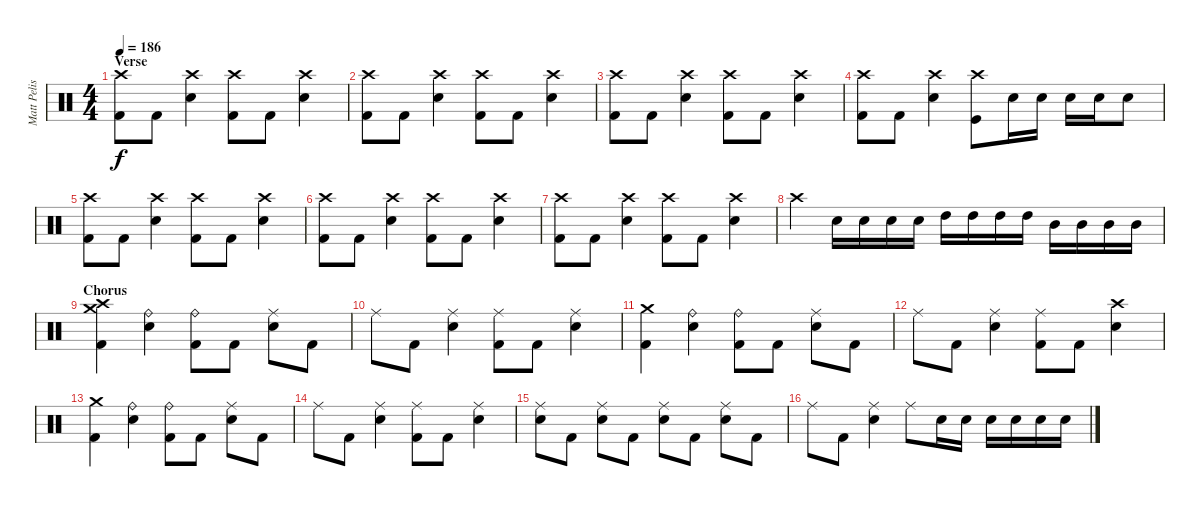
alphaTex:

\track ("Matt Pelissier" "Matt Pelis") {instrument percussion}
\staff {score}
\articulation defaults
\ts (4 4)
\section ("" "Verse")
\tempo 186
\clef neutral
\ks c
("Crash high (hit)" "Kick (hit) 2").8{dy f} "Kick (hit) 2".8 ("Snare (hit) 2" "Crash high (hit)").4 ("Crash high (hit)" "Kick (hit) 2").8 "Kick (hit) 2".8 ("Snare (hit) 2" "Crash high (hit)").4 |
("Crash high (hit)" "Kick (hit) 2").8 "Kick (hit) 2".8 ("Snare (hit) 2" "Crash high (hit)").4 ("Crash high (hit)" "Kick (hit) 2").8 "Kick (hit) 2".8 ("Snare (hit) 2" "Crash high (hit)").4 |
("Crash high (hit)" "Kick (hit) 2").8 "Kick (hit) 2".8 ("Snare (hit) 2" "Crash high (hit)").4 ("Crash high (hit)" "Kick (hit) 2").8 "Kick (hit) 2".8 ("Snare (hit) 2" "Crash high (hit)").4 |
("Crash high (hit)" "Kick (hit) 2").8 "Kick (hit) 2".8 ("Snare (hit) 2" "Crash high (hit)").4 ("Crash high (hit)" "Kick (hit)").8 "Snare (hit) 2".16 "Snare (hit) 2".16 "Snare (hit) 2".16 "Snare (hit) 2".16 "Snare (hit) 2".8 |
("Crash high (hit)" "Kick (hit) 2").8 "Kick (hit) 2".8 ("Snare (hit) 2" "Crash high (hit)").4 ("Crash high (hit)" "Kick (hit) 2").8 "Kick (hit) 2".8 ("Snare (hit) 2" "Crash high (hit)").4 |
("Crash high (hit)" "Kick (hit) 2").8 "Kick (hit) 2".8 ("Snare (hit) 2" "Crash high (hit)").4 ("Crash high (hit)" "Kick (hit) 2").8 "Kick (hit) 2".8 ("Snare (hit) 2" "Crash high (hit)").4 |
("Crash high (hit)" "Kick (hit) 2").8 "Kick (hit) 2".8 ("Snare (hit) 2" "Crash high (hit)").4 ("Crash high (hit)" "Kick (hit) 2").8 "Kick (hit) 2".8 ("Snare (hit) 2" "Crash high (hit)").4 |
"Crash high (hit)".4 "Snare (hit) 2".16 "Snare (hit) 2".16 "Snare (hit) 2".16 "Snare (hit) 2".16 "High Tom (hit)".16 "High Tom (hit)".16 "High Tom (hit)".16 "High Tom (hit)".16 "Mid Tom (hit)".16 "Mid Tom (hit)".16 "Mid Tom (hit)".16 "Mid Tom (hit)".16 |
\section ("" "Chorus")
("Crash high (hit)" "Crash medium (hit)" "Kick (hit) 2").4 ("Snare (hit) 2" "Ride (bell)").4 ("Ride (bell)" "Kick (hit) 2").8 "Kick (hit) 2".8 ("Snare (hit) 2" "Ride (middle)").8 "Kick (hit) 2".8 |
"Ride (middle)".8 "Kick (hit) 2".8 ("Snare (hit) 2" "Ride (middle)").4 ("Ride (middle)" "Kick (hit) 2").8 "Kick (hit) 2".8 ("Snare (hit) 2" "Ride (middle)").4 |
("Crash medium (hit)" "Kick (hit) 2").4 ("Snare (hit) 2" "Ride (bell)").4 ("Ride (bell)" "Kick (hit) 2").8 "Kick (hit) 2".8 ("Snare (hit) 2" "Ride (middle)").8 "Kick (hit) 2".8 |
"Ride (middle)".8 "Kick (hit) 2".8 ("Snare (hit) 2" "Ride (middle)").4 ("Ride (middle)" "Kick (hit) 2").8 "Kick (hit) 2".8 ("Snare (hit) 2" "Crash high (hit)").4 |
("Crash medium (hit)" "Kick (hit) 2").4 ("Snare (hit) 2" "Ride (bell)").4 ("Ride (bell)" "Kick (hit) 2").8 "Kick (hit) 2".8 ("Snare (hit) 2" "Ride (middle)").8 "Kick (hit) 2".8 |
"Ride (middle)".8 "Kick (hit) 2".8 ("Snare (hit) 2" "Ride (middle)").4 ("Ride (middle)" "Kick (hit) 2").8 "Kick (hit) 2".8 ("Snare (hit) 2" "Ride (middle)").4 |
("Ride (middle)" "Snare (hit) 2").8 "Kick (hit) 2".8 ("Ride (middle)" "Snare (hit) 2").8 "Kick (hit) 2".8 ("Ride (middle)" "Snare (hit) 2").8 "Kick (hit) 2".8 ("Ride (middle)" "Snare (hit) 2").8 "Kick (hit) 2".8 |
"Ride (middle)".8 "Kick (hit) 2".8 ("Ride (middle)" "Snare (hit) 2").4 "Ride (middle)".8 "Snare (hit) 2".16 "Snare (hit) 2".16 "Snare (hit) 2".16 "Snare (hit) 2".16 "Snare (hit) 2".16 "Snare (hit) 2".16
